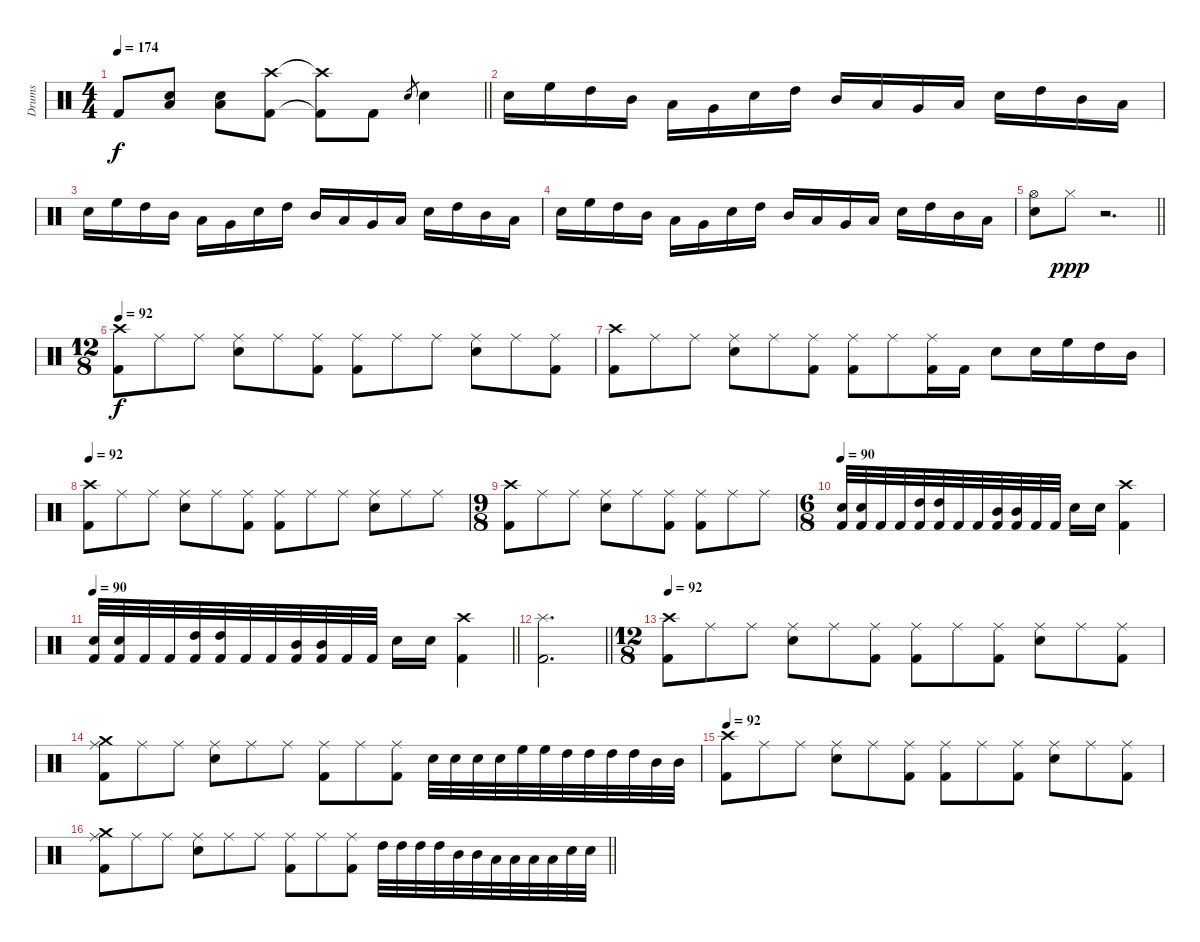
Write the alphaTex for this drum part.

\track ("Drums" "Drums") {instrument percussion}
\staff {score}
\articulation defaults
\ts (4 4)
\tempo 174
\clef neutral
\barLineRight lightlight
\ks c "Kick (hit) 2".8{dy f}
("Low Tom (hit)" "Electric Snare (hit)").8 ("Low Tom (hit)" "Electric Snare (hit)").8 ("Crash high (hit)" "Kick (hit) 2").8 ("Crash high (hit)"{t} "Kick (hit) 2"{t}).8 "Kick (hit) 2".8 "Electric Snare (hit)".8{gr} "Electric Snare (hit)".4 |
"Electric Snare (hit)".16 "High Floor Tom (hit)".16 "High Tom (hit)".16 "Mid Tom (hit)".16 "Low Tom (hit)".16 "Very Low Tom (hit)".16 "Electric Snare (hit)".16 "High Tom (hit)".16 "Mid Tom (hit)".16 "Low Tom (hit)".16 "Very Low Tom (hit)".16 "Low Floor Tom (hit)".16 "Electric Snare (hit)".16 "High Tom (hit)".16 "Mid Tom (hit)".16 "Low Tom (hit)".16 |
"Electric Snare (hit)".16 "High Floor Tom (hit)".16 "High Tom (hit)".16 "Mid Tom (hit)".16 "Low Tom (hit)".16 "Very Low Tom (hit)".16 "Electric Snare (hit)".16 "High Tom (hit)".16 "Mid Tom (hit)".16 "Low Tom (hit)".16 "Very Low Tom (hit)".16 "Low Floor Tom (hit)".16 "Electric Snare (hit)".16 "High Tom (hit)".16 "Mid Tom (hit)".16 "Low Tom (hit)".16 |
"Electric Snare (hit)".16 "High Floor Tom (hit)".16 "High Tom (hit)".16 "Mid Tom (hit)".16 "Low Tom (hit)".16 "Very Low Tom (hit)".16 "Electric Snare (hit)".16 "High Tom (hit)".16 "Mid Tom (hit)".16 "Low Tom (hit)".16 "Very Low Tom (hit)".16 "Low Floor Tom (hit)".16 "Electric Snare (hit)".16 "High Tom (hit)".16 "Mid Tom (hit)".16 "Low Tom (hit)".16 |
\barLineRight lightlight
("Hi-Hat (open)" "Electric Snare (hit)").8 "Hi-Hat (closed)".8{dy ppp} r.2{d} |
\ts (12 8)
\tempo 92
("Crash high (hit)" "Kick (hit) 2").8{dy f} "Ride (middle)".8 "Ride (middle)".8 ("Ride (middle)" "Electric Snare (hit)").8 "Ride (middle)".8 ("Ride (middle)" "Kick (hit) 2").8 ("Ride (middle)" "Kick (hit) 2").8 "Ride (middle)".8 "Ride (middle)".8 ("Ride (middle)" "Electric Snare (hit)").8 "Ride (middle)".8 ("Ride (middle)" "Kick (hit) 2").8 |
("Crash high (hit)" "Kick (hit) 2").8 "Ride (middle)".8 "Ride (middle)".8 ("Ride (middle)" "Electric Snare (hit)").8 "Ride (middle)".8 ("Ride (middle)" "Kick (hit) 2").8 ("Ride (middle)" "Kick (hit) 2").8 "Ride (middle)".8 ("Ride (middle)" "Kick (hit) 2").16 "Kick (hit) 2".16 "Electric Snare (hit)".8 "Electric Snare (hit)".16 "High Floor Tom (hit)".16 "High Tom (hit)".16 "Mid Tom (hit)".16 |
\tempo 92
("Crash high (hit)" "Kick (hit) 2").8 "Ride (middle)".8 "Ride (middle)".8 ("Ride (middle)" "Electric Snare (hit)").8 "Ride (middle)".8 ("Ride (middle)" "Kick (hit) 2").8 ("Ride (middle)" "Kick (hit) 2").8 "Ride (middle)".8 "Ride (middle)".8 ("Ride (middle)" "Electric Snare (hit)").8 "Ride (middle)".8 "Ride (middle)".8 |
\ts (9 8)
("Crash high (hit)" "Kick (hit) 2").8 "Ride (middle)".8 "Ride (middle)".8 ("Ride (middle)" "Electric Snare (hit)").8 "Ride (middle)".8 ("Ride (middle)" "Kick (hit) 2").8 ("Ride (middle)" "Kick (hit) 2").8 "Ride (middle)".8 "Ride (middle)".8 |
\ts (6 8)
\tempo 90
("Electric Snare (hit)" "Kick (hit) 2").32 ("Electric Snare (hit)" "Kick (hit) 2").32 "Kick (hit) 2".32 "Kick (hit) 2".32 ("High Tom (hit)" "Kick (hit) 2").32 ("High Tom (hit)" "Kick (hit) 2").32 "Kick (hit) 2".32 "Kick (hit) 2".32 ("Mid Tom (hit)" "Kick (hit) 2").32 ("Mid Tom (hit)" "Kick (hit) 2").32 "Kick (hit) 2".32 "Kick (hit) 2".32 "Electric Snare (hit)".16 "Electric Snare (hit)".16 ("Crash high (hit)" "Kick (hit) 2").4 |
\tempo 90
\barLineRight lightlight
("Electric Snare (hit)" "Kick (hit) 2").32 ("Electric Snare (hit)" "Kick (hit) 2").32 "Kick (hit) 2".32 "Kick (hit) 2".32 ("High Tom (hit)" "Kick (hit) 2").32 ("High Tom (hit)" "Kick (hit) 2").32 "Kick (hit) 2".32 "Kick (hit) 2".32 ("Mid Tom (hit)" "Kick (hit) 2").32 ("Mid Tom (hit)" "Kick (hit) 2").32 "Kick (hit) 2".32 "Kick (hit) 2".32 "Electric Snare (hit)".16 "Electric Snare (hit)".16 ("Crash high (hit)" "Kick (hit) 2").4 |
\barLineRight lightlight
("Splash (hit)" "Kick (hit) 2").2{d} |
\ts (12 8)
\tempo 92
("Crash high (hit)" "Kick (hit) 2").8 "Ride (middle)".8 "Ride (middle)".8 ("Ride (middle)" "Electric Snare (hit)").8 "Ride (middle)".8 ("Ride (middle)" "Kick (hit) 2").8 ("Ride (middle)" "Kick (hit) 2").8 "Ride (middle)".8 ("Ride (middle)" "Kick (hit) 2").8 ("Ride (middle)" "Electric Snare (hit)").8 "Ride (middle)".8 ("Ride (middle)" "Kick (hit) 2").8 |
("Crash medium (hit)" "Ride (middle)" "Kick (hit) 2").8 "Ride (middle)".8 "Ride (middle)".8 ("Ride (middle)" "Electric Snare (hit)").8 "Ride (middle)".8 "Ride (middle)".8 ("Ride (middle)" "Kick (hit) 2").8 "Ride (middle)".8 ("Ride (middle)" "Kick (hit) 2").8 "Electric Snare (hit)".32 "Electric Snare (hit)".32 "Electric Snare (hit)".32 "Electric Snare (hit)".32 "High Floor Tom (hit)".32 "High Floor Tom (hit)".32 "High Tom (hit)".32 "High Tom (hit)".32 "High Tom (hit)".32 "High Tom (hit)".32 "Mid Tom (hit)".32 "Mid Tom (hit)".32 |
\tempo 92
("Crash high (hit)" "Kick (hit) 2").8 "Ride (middle)".8 "Ride (middle)".8 ("Ride (middle)" "Electric Snare (hit)").8 "Ride (middle)".8 ("Ride (middle)" "Kick (hit) 2").8 ("Ride (middle)" "Kick (hit) 2").8 "Ride (middle)".8 ("Ride (middle)" "Kick (hit) 2").8 ("Ride (middle)" "Electric Snare (hit)").8 "Ride (middle)".8 ("Ride (middle)" "Kick (hit) 2").8 |
\barLineRight lightlight
("Crash medium (hit)" "Ride (middle)" "Kick (hit) 2").8 "Ride (middle)".8 "Ride (middle)".8 ("Ride (middle)" "Electric Snare (hit)").8 "Ride (middle)".8 "Ride (middle)".8 ("Ride (middle)" "Kick (hit) 2").8 "Ride (middle)".8 ("Ride (middle)" "Kick (hit) 2").8 "High Tom (hit)".32 "High Tom (hit)".32 "High Tom (hit)".32 "High Tom (hit)".32 "Mid Tom (hit)".32 "Mid Tom (hit)".32 "Low Tom (hit)".32 "Low Tom (hit)".32 "Low Tom (hit)".32 "Low Tom (hit)".32 "Electric Snare (hit)".32 "Electric Snare (hit)".32
